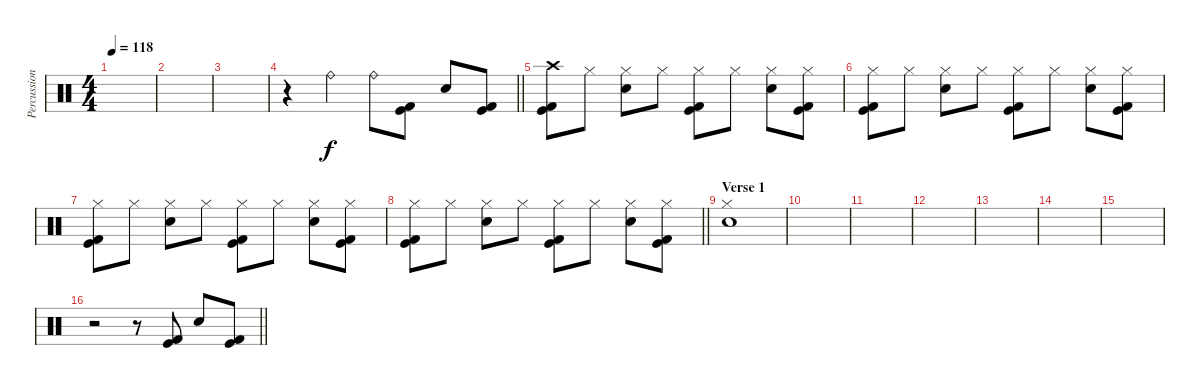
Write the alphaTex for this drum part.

\track ("Percussion" "Percussion") {instrument percussion}
\staff {score}
\articulation defaults
\ts (4 4)
\tempo 118
\clef neutral
\ks c
|
|
|
\barLineRight lightlight
r.4 "Ride (bell)".4 "Ride (bell)".8 ("Kick (hit)" "Kick (hit) 2").8 "Electric Snare (hit)".8 ("Kick (hit)" "Kick (hit) 2").8 |
\section ("" "")
("Crash high (hit)" "Kick (hit)" "Kick (hit) 2").8 "Hi-Hat (closed)".8 ("Hi-Hat (closed)" "Electric Snare (hit)").8 "Hi-Hat (closed)".8 ("Hi-Hat (closed)" "Kick (hit)" "Kick (hit) 2").8 "Hi-Hat (closed)".8 ("Hi-Hat (closed)" "Electric Snare (hit)").8 ("Hi-Hat (closed)" "Kick (hit)" "Kick (hit) 2").8 |
("Hi-Hat (closed)" "Kick (hit)" "Kick (hit) 2").8 "Hi-Hat (closed)".8 ("Hi-Hat (closed)" "Electric Snare (hit)").8 "Hi-Hat (closed)".8 ("Hi-Hat (closed)" "Kick (hit)" "Kick (hit) 2").8 "Hi-Hat (closed)".8 ("Hi-Hat (closed)" "Electric Snare (hit)").8 ("Hi-Hat (closed)" "Kick (hit)" "Kick (hit) 2").8 |
("Hi-Hat (closed)" "Kick (hit)" "Kick (hit) 2").8 "Hi-Hat (closed)".8 ("Hi-Hat (closed)" "Electric Snare (hit)").8 "Hi-Hat (closed)".8 ("Hi-Hat (closed)" "Kick (hit)" "Kick (hit) 2").8 "Hi-Hat (closed)".8 ("Hi-Hat (closed)" "Electric Snare (hit)").8 ("Hi-Hat (closed)" "Kick (hit)" "Kick (hit) 2").8 |
\barLineRight lightlight
("Hi-Hat (closed)" "Kick (hit)" "Kick (hit) 2").8 "Hi-Hat (closed)".8 ("Hi-Hat (closed)" "Electric Snare (hit)").8 "Hi-Hat (closed)".8 ("Hi-Hat (closed)" "Kick (hit)" "Kick (hit) 2").8 "Hi-Hat (closed)".8 ("Hi-Hat (closed)" "Electric Snare (hit)").8 ("Hi-Hat (closed)" "Kick (hit)" "Kick (hit) 2").8 |
\section ("" "Verse 1")
("Hi-Hat (closed)" "Electric Snare (hit)").1 |
|
|
|
|
|
|
\barLineRight lightlight
r.2 r.8 ("Kick (hit)" "Kick (hit) 2").8 "Electric Snare (hit)".8 ("Kick (hit)" "Kick (hit) 2").8
